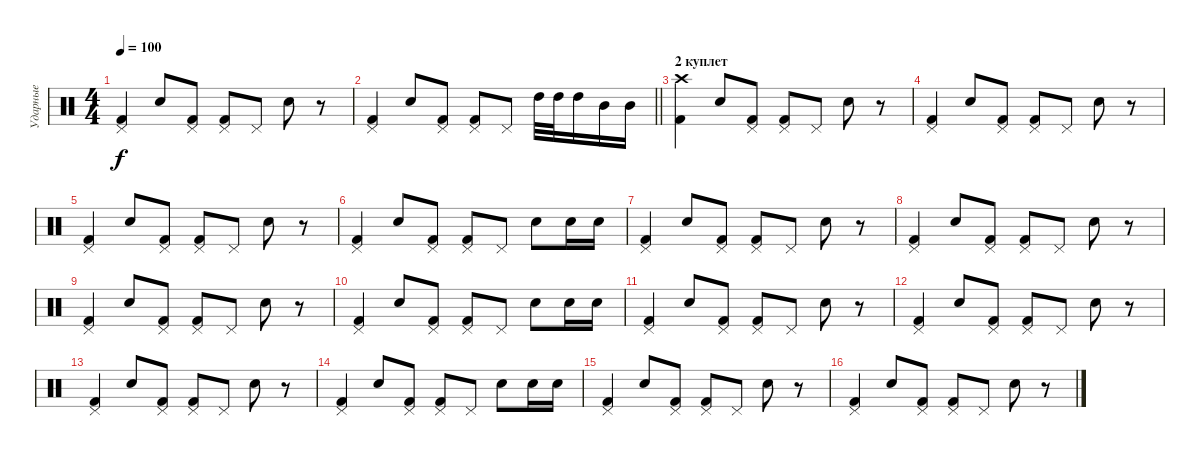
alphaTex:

\track ("Ударные" "Ударные") {instrument percussion}
\staff {score}
\articulation defaults
\ts (4 4)
\tempo 100
\clef neutral
\ks c
("Pedal Hi-Hat (hit)" "Kick (hit) 2").4{dy f} "Snare (hit) 2".8 ("Pedal Hi-Hat (hit)" "Kick (hit) 2").8 ("Pedal Hi-Hat (hit)" "Kick (hit) 2").8 "Pedal Hi-Hat (hit)".8 "Snare (hit) 2".8 r.8 |
\barLineRight lightlight
("Pedal Hi-Hat (hit)" "Kick (hit) 2").4 "Snare (hit) 2".8 ("Pedal Hi-Hat (hit)" "Kick (hit) 2").8 ("Pedal Hi-Hat (hit)" "Kick (hit) 2").8 "Pedal Hi-Hat (hit)".8 "High Tom (hit)".32 "High Tom (hit)".32 "High Tom (hit)".16 "Mid Tom (hit)".16 "Mid Tom (hit)".16 |
\section ("" "2 куплет")
("Crash high (hit)" "Kick (hit) 2").4 "Snare (hit) 2".8 ("Pedal Hi-Hat (hit)" "Kick (hit) 2").8 ("Pedal Hi-Hat (hit)" "Kick (hit) 2").8 "Pedal Hi-Hat (hit)".8 "Snare (hit) 2".8 r.8 |
("Pedal Hi-Hat (hit)" "Kick (hit) 2").4 "Snare (hit) 2".8 ("Pedal Hi-Hat (hit)" "Kick (hit) 2").8 ("Pedal Hi-Hat (hit)" "Kick (hit) 2").8 "Pedal Hi-Hat (hit)".8 "Snare (hit) 2".8 r.8 |
("Pedal Hi-Hat (hit)" "Kick (hit) 2").4 "Snare (hit) 2".8 ("Pedal Hi-Hat (hit)" "Kick (hit) 2").8 ("Pedal Hi-Hat (hit)" "Kick (hit) 2").8 "Pedal Hi-Hat (hit)".8 "Snare (hit) 2".8 r.8 |
("Pedal Hi-Hat (hit)" "Kick (hit) 2").4 "Snare (hit) 2".8 ("Pedal Hi-Hat (hit)" "Kick (hit) 2").8 ("Pedal Hi-Hat (hit)" "Kick (hit) 2").8 "Pedal Hi-Hat (hit)".8 "Snare (hit) 2".8 "Snare (hit) 2".16 "Snare (hit) 2".16 |
("Pedal Hi-Hat (hit)" "Kick (hit) 2").4 "Snare (hit) 2".8 ("Pedal Hi-Hat (hit)" "Kick (hit) 2").8 ("Pedal Hi-Hat (hit)" "Kick (hit) 2").8 "Pedal Hi-Hat (hit)".8 "Snare (hit) 2".8 r.8 |
("Pedal Hi-Hat (hit)" "Kick (hit) 2").4 "Snare (hit) 2".8 ("Pedal Hi-Hat (hit)" "Kick (hit) 2").8 ("Pedal Hi-Hat (hit)" "Kick (hit) 2").8 "Pedal Hi-Hat (hit)".8 "Snare (hit) 2".8 r.8 |
("Pedal Hi-Hat (hit)" "Kick (hit) 2").4 "Snare (hit) 2".8 ("Pedal Hi-Hat (hit)" "Kick (hit) 2").8 ("Pedal Hi-Hat (hit)" "Kick (hit) 2").8 "Pedal Hi-Hat (hit)".8 "Snare (hit) 2".8 r.8 |
("Pedal Hi-Hat (hit)" "Kick (hit) 2").4 "Snare (hit) 2".8 ("Pedal Hi-Hat (hit)" "Kick (hit) 2").8 ("Pedal Hi-Hat (hit)" "Kick (hit) 2").8 "Pedal Hi-Hat (hit)".8 "Snare (hit) 2".8 "Snare (hit) 2".16 "Snare (hit) 2".16 |
("Pedal Hi-Hat (hit)" "Kick (hit) 2").4 "Snare (hit) 2".8 ("Pedal Hi-Hat (hit)" "Kick (hit) 2").8 ("Pedal Hi-Hat (hit)" "Kick (hit) 2").8 "Pedal Hi-Hat (hit)".8 "Snare (hit) 2".8 r.8 |
("Pedal Hi-Hat (hit)" "Kick (hit) 2").4 "Snare (hit) 2".8 ("Pedal Hi-Hat (hit)" "Kick (hit) 2").8 ("Pedal Hi-Hat (hit)" "Kick (hit) 2").8 "Pedal Hi-Hat (hit)".8 "Snare (hit) 2".8 r.8 |
("Pedal Hi-Hat (hit)" "Kick (hit) 2").4 "Snare (hit) 2".8 ("Pedal Hi-Hat (hit)" "Kick (hit) 2").8 ("Pedal Hi-Hat (hit)" "Kick (hit) 2").8 "Pedal Hi-Hat (hit)".8 "Snare (hit) 2".8 r.8 |
("Pedal Hi-Hat (hit)" "Kick (hit) 2").4 "Snare (hit) 2".8 ("Pedal Hi-Hat (hit)" "Kick (hit) 2").8 ("Pedal Hi-Hat (hit)" "Kick (hit) 2").8 "Pedal Hi-Hat (hit)".8 "Snare (hit) 2".8 "Snare (hit) 2".16 "Snare (hit) 2".16 |
("Pedal Hi-Hat (hit)" "Kick (hit) 2").4 "Snare (hit) 2".8 ("Pedal Hi-Hat (hit)" "Kick (hit) 2").8 ("Pedal Hi-Hat (hit)" "Kick (hit) 2").8 "Pedal Hi-Hat (hit)".8 "Snare (hit) 2".8 r.8 |
("Pedal Hi-Hat (hit)" "Kick (hit) 2").4 "Snare (hit) 2".8 ("Pedal Hi-Hat (hit)" "Kick (hit) 2").8 ("Pedal Hi-Hat (hit)" "Kick (hit) 2").8 "Pedal Hi-Hat (hit)".8 "Snare (hit) 2".8 r.8
